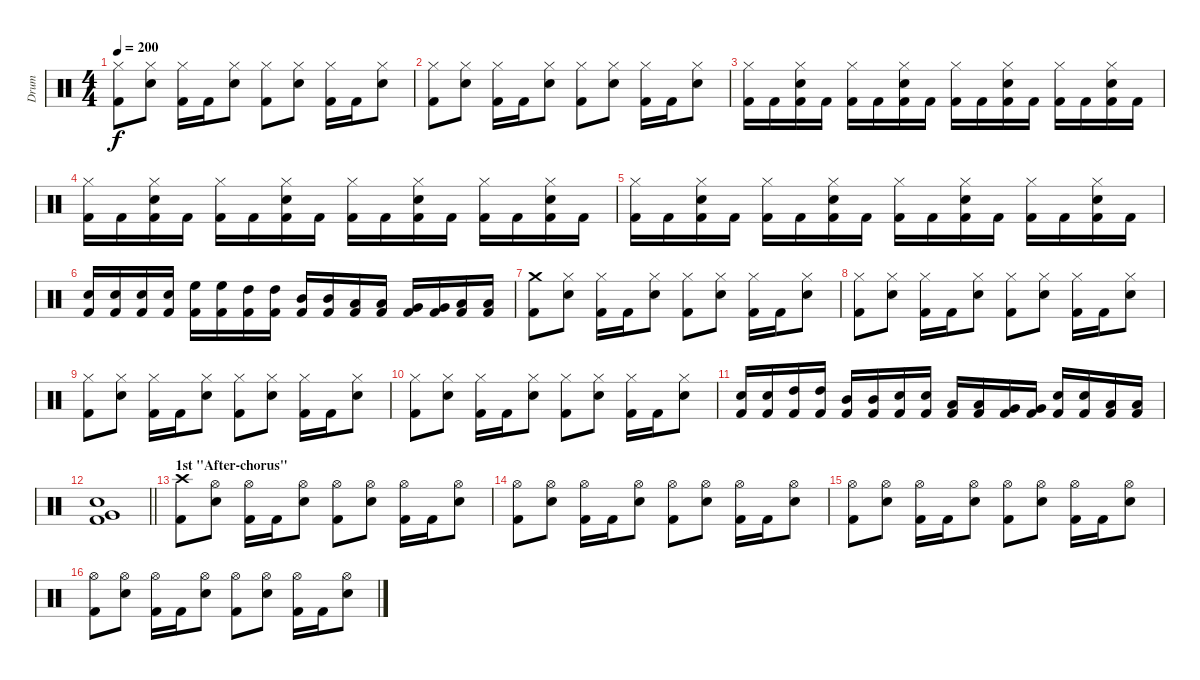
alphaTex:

\track ("Drum" "Drum") {instrument percussion}
\staff {score}
\articulation defaults
\ts (4 4)
\tempo 200
\clef neutral
\ks c
("Kick (hit) 2" "Hi-Hat (closed)").8{dy f} ("Snare (hit) 2" "Hi-Hat (closed)").8 ("Kick (hit) 2" "Hi-Hat (closed)").16 "Kick (hit) 2".16 ("Snare (hit) 2" "Hi-Hat (closed)").8 ("Kick (hit) 2" "Hi-Hat (closed)").8 ("Snare (hit) 2" "Hi-Hat (closed)").8 ("Kick (hit) 2" "Hi-Hat (closed)").16 "Kick (hit) 2".16 ("Snare (hit) 2" "Hi-Hat (closed)").8 |
("Kick (hit) 2" "Hi-Hat (closed)").8 ("Snare (hit) 2" "Hi-Hat (closed)").8 ("Kick (hit) 2" "Hi-Hat (closed)").16 "Kick (hit) 2".16 ("Snare (hit) 2" "Hi-Hat (closed)").8 ("Kick (hit) 2" "Hi-Hat (closed)").8 ("Snare (hit) 2" "Hi-Hat (closed)").8 ("Kick (hit) 2" "Hi-Hat (closed)").16 "Kick (hit) 2".16 ("Snare (hit) 2" "Hi-Hat (closed)").8 |
("Kick (hit) 2" "Hi-Hat (closed)").16 "Kick (hit) 2".16 ("Kick (hit) 2" "Snare (hit) 2" "Hi-Hat (closed)").16 "Kick (hit) 2".16 ("Kick (hit) 2" "Hi-Hat (closed)").16 "Kick (hit) 2".16 ("Kick (hit) 2" "Snare (hit) 2" "Hi-Hat (closed)").16 "Kick (hit) 2".16 ("Kick (hit) 2" "Hi-Hat (closed)").16 "Kick (hit) 2".16 ("Kick (hit) 2" "Snare (hit) 2" "Hi-Hat (closed)").16 "Kick (hit) 2".16 ("Kick (hit) 2" "Hi-Hat (closed)").16 "Kick (hit) 2".16 ("Kick (hit) 2" "Snare (hit) 2" "Hi-Hat (closed)").16 "Kick (hit) 2".16 |
("Kick (hit) 2" "Hi-Hat (closed)").16 "Kick (hit) 2".16 ("Kick (hit) 2" "Snare (hit) 2" "Hi-Hat (closed)").16 "Kick (hit) 2".16 ("Kick (hit) 2" "Hi-Hat (closed)").16 "Kick (hit) 2".16 ("Kick (hit) 2" "Snare (hit) 2" "Hi-Hat (closed)").16 "Kick (hit) 2".16 ("Kick (hit) 2" "Hi-Hat (closed)").16 "Kick (hit) 2".16 ("Kick (hit) 2" "Snare (hit) 2" "Hi-Hat (closed)").16 "Kick (hit) 2".16 ("Kick (hit) 2" "Hi-Hat (closed)").16 "Kick (hit) 2".16 ("Kick (hit) 2" "Snare (hit) 2" "Hi-Hat (closed)").16 "Kick (hit) 2".16 |
("Kick (hit) 2" "Hi-Hat (closed)").16 "Kick (hit) 2".16 ("Kick (hit) 2" "Snare (hit) 2" "Hi-Hat (closed)").16 "Kick (hit) 2".16 ("Kick (hit) 2" "Hi-Hat (closed)").16 "Kick (hit) 2".16 ("Kick (hit) 2" "Snare (hit) 2" "Hi-Hat (closed)").16 "Kick (hit) 2".16 ("Kick (hit) 2" "Hi-Hat (closed)").16 "Kick (hit) 2".16 ("Kick (hit) 2" "Snare (hit) 2" "Hi-Hat (closed)").16 "Kick (hit) 2".16 ("Kick (hit) 2" "Hi-Hat (closed)").16 "Kick (hit) 2".16 ("Kick (hit) 2" "Snare (hit) 2" "Hi-Hat (closed)").16 "Kick (hit) 2".16 |
("Kick (hit) 2" "Snare (hit) 2").16 ("Kick (hit) 2" "Snare (hit) 2").16 ("Kick (hit) 2" "Snare (hit) 2").16 ("Kick (hit) 2" "Snare (hit) 2").16 ("Kick (hit) 2" "High Floor Tom (hit)").16 ("Kick (hit) 2" "High Floor Tom (hit)").16 ("Kick (hit) 2" "High Tom (hit)").16 ("Kick (hit) 2" "High Tom (hit)").16 ("Kick (hit) 2" "Mid Tom (hit)").16 ("Kick (hit) 2" "Mid Tom (hit)").16 ("Kick (hit) 2" "Low Tom (hit)").16 ("Kick (hit) 2" "Low Tom (hit)").16 ("Kick (hit) 2" "Very Low Tom (hit)").16 ("Kick (hit) 2" "Very Low Tom (hit)").16 ("Kick (hit) 2" "Low Floor Tom (hit)").16 ("Kick (hit) 2" "Low Floor Tom (hit)").16 |
("Kick (hit) 2" "Crash medium (hit)").8 ("Snare (hit) 2" "Hi-Hat (closed)").8 ("Kick (hit) 2" "Hi-Hat (closed)").16 "Kick (hit) 2".16 ("Snare (hit) 2" "Hi-Hat (closed)").8 ("Kick (hit) 2" "Hi-Hat (closed)").8 ("Snare (hit) 2" "Hi-Hat (closed)").8 ("Kick (hit) 2" "Hi-Hat (closed)").16 "Kick (hit) 2".16 ("Snare (hit) 2" "Hi-Hat (closed)").8 |
("Kick (hit) 2" "Hi-Hat (closed)").8 ("Snare (hit) 2" "Hi-Hat (closed)").8 ("Kick (hit) 2" "Hi-Hat (closed)").16 "Kick (hit) 2".16 ("Snare (hit) 2" "Hi-Hat (closed)").8 ("Kick (hit) 2" "Hi-Hat (closed)").8 ("Snare (hit) 2" "Hi-Hat (closed)").8 ("Kick (hit) 2" "Hi-Hat (closed)").16 "Kick (hit) 2".16 ("Snare (hit) 2" "Hi-Hat (closed)").8 |
("Kick (hit) 2" "Hi-Hat (closed)").8 ("Snare (hit) 2" "Hi-Hat (closed)").8 ("Kick (hit) 2" "Hi-Hat (closed)").16 "Kick (hit) 2".16 ("Snare (hit) 2" "Hi-Hat (closed)").8 ("Kick (hit) 2" "Hi-Hat (closed)").8 ("Snare (hit) 2" "Hi-Hat (closed)").8 ("Kick (hit) 2" "Hi-Hat (closed)").16 "Kick (hit) 2".16 ("Snare (hit) 2" "Hi-Hat (closed)").8 |
("Kick (hit) 2" "Hi-Hat (closed)").8 ("Snare (hit) 2" "Hi-Hat (closed)").8 ("Kick (hit) 2" "Hi-Hat (closed)").16 "Kick (hit) 2".16 ("Snare (hit) 2" "Hi-Hat (closed)").8 ("Kick (hit) 2" "Hi-Hat (closed)").8 ("Snare (hit) 2" "Hi-Hat (closed)").8 ("Kick (hit) 2" "Hi-Hat (closed)").16 "Kick (hit) 2".16 ("Snare (hit) 2" "Hi-Hat (closed)").8 |
("Kick (hit) 2" "Snare (hit) 2").16 ("Kick (hit) 2" "Snare (hit) 2").16 ("Kick (hit) 2" "High Tom (hit)").16 ("Kick (hit) 2" "High Tom (hit)").16 ("Kick (hit) 2" "Mid Tom (hit)").16 ("Kick (hit) 2" "Mid Tom (hit)").16 ("Kick (hit) 2" "Snare (hit) 2").16 ("Kick (hit) 2" "Snare (hit) 2").16 ("Kick (hit) 2" "Low Tom (hit)").16 ("Kick (hit) 2" "Low Tom (hit)").16 ("Kick (hit) 2" "Very Low Tom (hit)").16 ("Kick (hit) 2" "Very Low Tom (hit)").16 ("Kick (hit) 2" "Snare (hit) 2").16 ("Kick (hit) 2" "Snare (hit) 2").16 ("Kick (hit) 2" "Low Floor Tom (hit)").16 ("Kick (hit) 2" "Low Floor Tom (hit)").16 |
\barLineRight lightlight
("Kick (hit) 2" "Snare (hit) 2" "Very Low Tom (hit)").1 |
\section ("" "1st ''After-chorus''")
("Kick (hit) 2" "Crash high (hit)").8 ("Snare (hit) 2" "Hi-Hat (open)").8 ("Kick (hit) 2" "Hi-Hat (open)").16 "Kick (hit) 2".16 ("Snare (hit) 2" "Hi-Hat (open)").8 ("Kick (hit) 2" "Hi-Hat (open)").8 ("Snare (hit) 2" "Hi-Hat (open)").8 ("Kick (hit) 2" "Hi-Hat (open)").16 "Kick (hit) 2".16 ("Snare (hit) 2" "Hi-Hat (open)").8 |
("Kick (hit) 2" "Hi-Hat (open)").8 ("Snare (hit) 2" "Hi-Hat (open)").8 ("Kick (hit) 2" "Hi-Hat (open)").16 "Kick (hit) 2".16 ("Snare (hit) 2" "Hi-Hat (open)").8 ("Kick (hit) 2" "Hi-Hat (open)").8 ("Snare (hit) 2" "Hi-Hat (open)").8 ("Kick (hit) 2" "Hi-Hat (open)").16 "Kick (hit) 2".16 ("Snare (hit) 2" "Hi-Hat (open)").8 |
("Kick (hit) 2" "Hi-Hat (open)").8 ("Snare (hit) 2" "Hi-Hat (open)").8 ("Kick (hit) 2" "Hi-Hat (open)").16 "Kick (hit) 2".16 ("Snare (hit) 2" "Hi-Hat (open)").8 ("Kick (hit) 2" "Hi-Hat (open)").8 ("Snare (hit) 2" "Hi-Hat (open)").8 ("Kick (hit) 2" "Hi-Hat (open)").16 "Kick (hit) 2".16 ("Snare (hit) 2" "Hi-Hat (open)").8 |
("Kick (hit) 2" "Hi-Hat (open)").8 ("Snare (hit) 2" "Hi-Hat (open)").8 ("Kick (hit) 2" "Hi-Hat (open)").16 "Kick (hit) 2".16 ("Snare (hit) 2" "Hi-Hat (open)").8 ("Kick (hit) 2" "Hi-Hat (open)").8 ("Snare (hit) 2" "Hi-Hat (open)").8 ("Kick (hit) 2" "Hi-Hat (open)").16 "Kick (hit) 2".16 ("Snare (hit) 2" "Hi-Hat (open)").8
